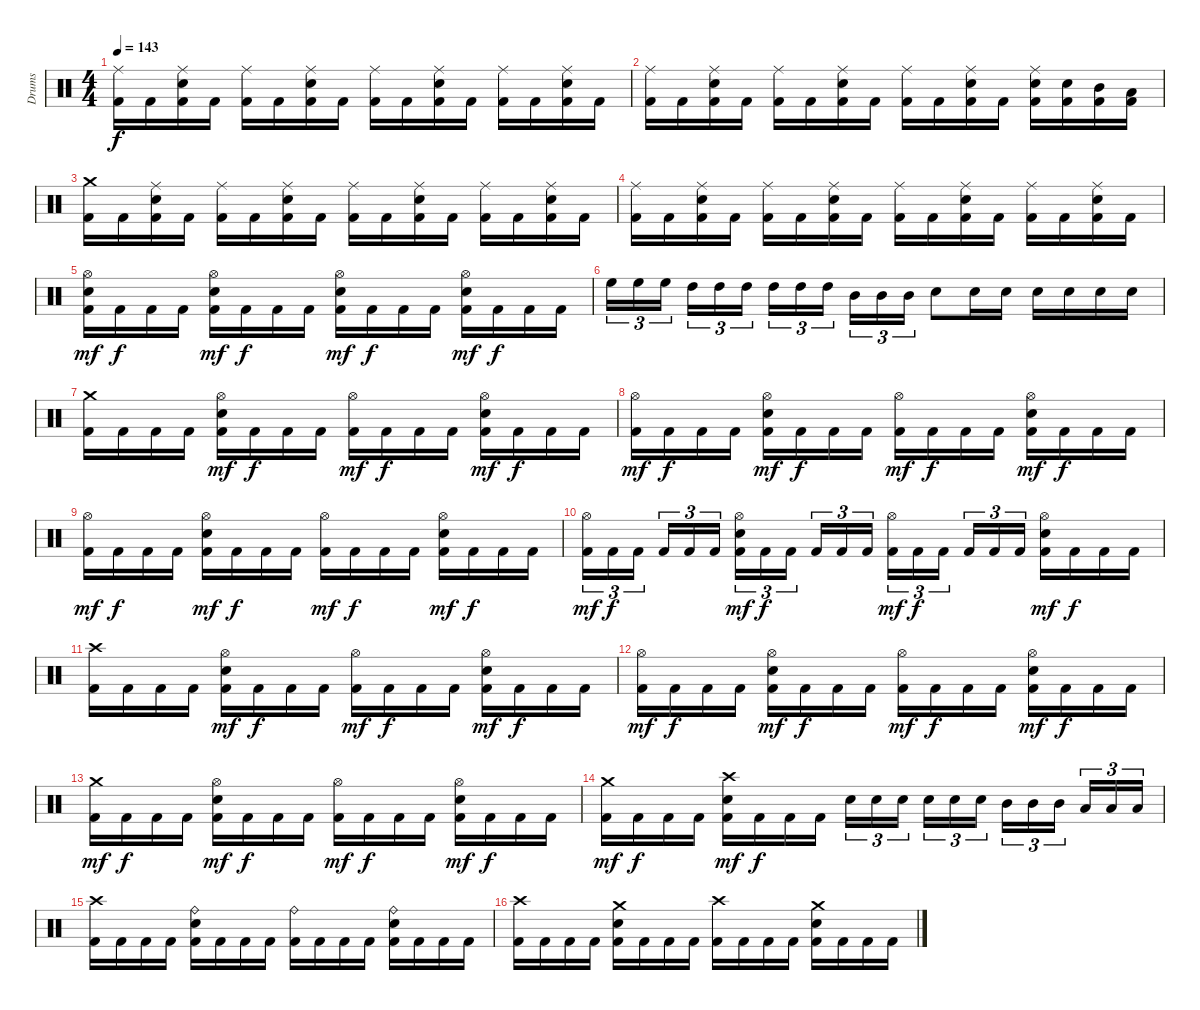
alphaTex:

\track ("Drums" "Drums") {instrument percussion}
\staff {score}
\articulation defaults
\ts (4 4)
\tempo 143
\clef neutral
\ks c
("Ride (middle)" "Kick (hit) 2").16{dy f} "Kick (hit) 2".16 ("Ride (middle)" "Electric Snare (hit)" "Kick (hit) 2").16 "Kick (hit) 2".16 ("Ride (middle)" "Kick (hit) 2").16 "Kick (hit) 2".16 ("Ride (middle)" "Electric Snare (hit)" "Kick (hit) 2").16 "Kick (hit) 2".16 ("Ride (middle)" "Kick (hit) 2").16 "Kick (hit) 2".16 ("Ride (middle)" "Electric Snare (hit)" "Kick (hit) 2").16 "Kick (hit) 2".16 ("Ride (middle)" "Kick (hit) 2").16 "Kick (hit) 2".16 ("Ride (middle)" "Electric Snare (hit)" "Kick (hit) 2").16 "Kick (hit) 2".16 |
("Ride (middle)" "Kick (hit) 2").16 "Kick (hit) 2".16 ("Ride (middle)" "Electric Snare (hit)" "Kick (hit) 2").16 "Kick (hit) 2".16 ("Ride (middle)" "Kick (hit) 2").16 "Kick (hit) 2".16 ("Ride (middle)" "Electric Snare (hit)" "Kick (hit) 2").16 "Kick (hit) 2".16 ("Ride (middle)" "Kick (hit) 2").16 "Kick (hit) 2".16 ("Ride (middle)" "Electric Snare (hit)" "Kick (hit) 2").16 "Kick (hit) 2".16 ("Ride (middle)" "Electric Snare (hit)" "Kick (hit) 2").16 ("Electric Snare (hit)" "Kick (hit) 2").16 ("Mid Tom (hit)" "Kick (hit) 2").16 ("Low Tom (hit)" "Kick (hit) 2").16 |
("Crash medium (hit)" "Kick (hit) 2").16 "Kick (hit) 2".16 ("Ride (middle)" "Electric Snare (hit)" "Kick (hit) 2").16 "Kick (hit) 2".16 ("Ride (middle)" "Kick (hit) 2").16 "Kick (hit) 2".16 ("Ride (middle)" "Electric Snare (hit)" "Kick (hit) 2").16 "Kick (hit) 2".16 ("Ride (middle)" "Kick (hit) 2").16 "Kick (hit) 2".16 ("Ride (middle)" "Electric Snare (hit)" "Kick (hit) 2").16 "Kick (hit) 2".16 ("Ride (middle)" "Kick (hit) 2").16 "Kick (hit) 2".16 ("Ride (middle)" "Electric Snare (hit)" "Kick (hit) 2").16 "Kick (hit) 2".16 |
("Ride (middle)" "Kick (hit) 2").16 "Kick (hit) 2".16 ("Ride (middle)" "Electric Snare (hit)" "Kick (hit) 2").16 "Kick (hit) 2".16 ("Ride (middle)" "Kick (hit) 2").16 "Kick (hit) 2".16 ("Ride (middle)" "Electric Snare (hit)" "Kick (hit) 2").16 "Kick (hit) 2".16 ("Ride (middle)" "Kick (hit) 2").16 "Kick (hit) 2".16 ("Ride (middle)" "Electric Snare (hit)" "Kick (hit) 2").16 "Kick (hit) 2".16 ("Ride (middle)" "Kick (hit) 2").16 "Kick (hit) 2".16 ("Ride (middle)" "Electric Snare (hit)" "Kick (hit) 2").16 "Kick (hit) 2".16 |
("Hi-Hat (open)" "Electric Snare (hit)" "Kick (hit) 2").16{dy mf} "Kick (hit) 2".16{dy f} "Kick (hit) 2".16 "Kick (hit) 2".16 ("Hi-Hat (open)" "Electric Snare (hit)" "Kick (hit) 2").16{dy mf} "Kick (hit) 2".16{dy f} "Kick (hit) 2".16 "Kick (hit) 2".16 ("Hi-Hat (open)" "Electric Snare (hit)" "Kick (hit) 2").16{dy mf} "Kick (hit) 2".16{dy f} "Kick (hit) 2".16 "Kick (hit) 2".16 ("Hi-Hat (open)" "Electric Snare (hit)" "Kick (hit) 2").16{dy mf} "Kick (hit) 2".16{dy f} "Kick (hit) 2".16 "Kick (hit) 2".16 |
"High Floor Tom (hit)".16{tu (3 2)} "High Floor Tom (hit)".16{tu (3 2)} "High Floor Tom (hit)".16{tu (3 2)} "High Tom (hit)".16{tu (3 2)} "High Tom (hit)".16{tu (3 2)} "High Tom (hit)".16{tu (3 2)} "High Tom (hit)".16{tu (3 2)} "High Tom (hit)".16{tu (3 2)} "High Tom (hit)".16{tu (3 2)} "Mid Tom (hit)".16{tu (3 2)} "Mid Tom (hit)".16{tu (3 2)} "Mid Tom (hit)".16{tu (3 2)} "Electric Snare (hit)".8 "Electric Snare (hit)".16 "Electric Snare (hit)".16 "Electric Snare (hit)".16 "Electric Snare (hit)".16 "Electric Snare (hit)".16 "Electric Snare (hit)".16 |
("Crash medium (hit)" "Kick (hit) 2").16 "Kick (hit) 2".16 "Kick (hit) 2".16 "Kick (hit) 2".16 ("Hi-Hat (open)" "Electric Snare (hit)" "Kick (hit) 2").16{dy mf} "Kick (hit) 2".16{dy f} "Kick (hit) 2".16 "Kick (hit) 2".16 ("Hi-Hat (open)" "Kick (hit) 2").16{dy mf} "Kick (hit) 2".16{dy f} "Kick (hit) 2".16 "Kick (hit) 2".16 ("Hi-Hat (open)" "Electric Snare (hit)" "Kick (hit) 2").16{dy mf} "Kick (hit) 2".16{dy f} "Kick (hit) 2".16 "Kick (hit) 2".16 |
("Hi-Hat (open)" "Kick (hit) 2").16{dy mf} "Kick (hit) 2".16{dy f} "Kick (hit) 2".16 "Kick (hit) 2".16 ("Hi-Hat (open)" "Electric Snare (hit)" "Kick (hit) 2").16{dy mf} "Kick (hit) 2".16{dy f} "Kick (hit) 2".16 "Kick (hit) 2".16 ("Hi-Hat (open)" "Kick (hit) 2").16{dy mf} "Kick (hit) 2".16{dy f} "Kick (hit) 2".16 "Kick (hit) 2".16 ("Hi-Hat (open)" "Electric Snare (hit)" "Kick (hit) 2").16{dy mf} "Kick (hit) 2".16{dy f} "Kick (hit) 2".16 "Kick (hit) 2".16 |
("Hi-Hat (open)" "Kick (hit) 2").16{dy mf} "Kick (hit) 2".16{dy f} "Kick (hit) 2".16 "Kick (hit) 2".16 ("Hi-Hat (open)" "Electric Snare (hit)" "Kick (hit) 2").16{dy mf} "Kick (hit) 2".16{dy f} "Kick (hit) 2".16 "Kick (hit) 2".16 ("Hi-Hat (open)" "Kick (hit) 2").16{dy mf} "Kick (hit) 2".16{dy f} "Kick (hit) 2".16 "Kick (hit) 2".16 ("Hi-Hat (open)" "Electric Snare (hit)" "Kick (hit) 2").16{dy mf} "Kick (hit) 2".16{dy f} "Kick (hit) 2".16 "Kick (hit) 2".16 |
("Hi-Hat (open)" "Kick (hit) 2").16{tu (3 2) dy mf} "Kick (hit) 2".16{tu (3 2) dy f} "Kick (hit) 2".16{tu (3 2)} "Kick (hit) 2".16{tu (3 2)} "Kick (hit) 2".16{tu (3 2)} "Kick (hit) 2".16{tu (3 2)} ("Hi-Hat (open)" "Electric Snare (hit)" "Kick (hit) 2").16{tu (3 2) dy mf} "Kick (hit) 2".16{tu (3 2) dy f} "Kick (hit) 2".16{tu (3 2)} "Kick (hit) 2".16{tu (3 2)} "Kick (hit) 2".16{tu (3 2)} "Kick (hit) 2".16{tu (3 2)} ("Hi-Hat (open)" "Kick (hit) 2").16{tu (3 2) dy mf} "Kick (hit) 2".16{tu (3 2) dy f} "Kick (hit) 2".16{tu (3 2)} "Kick (hit) 2".16{tu (3 2)} "Kick (hit) 2".16{tu (3 2)} "Kick (hit) 2".16{tu (3 2)} ("Hi-Hat (open)" "Electric Snare (hit)" "Kick (hit) 2").16{dy mf} "Kick (hit) 2".16{dy f} "Kick (hit) 2".16 "Kick (hit) 2".16 |
("Crash high (hit)" "Kick (hit) 2").16 "Kick (hit) 2".16 "Kick (hit) 2".16 "Kick (hit) 2".16 ("Hi-Hat (open)" "Electric Snare (hit)" "Kick (hit) 2").16{dy mf} "Kick (hit) 2".16{dy f} "Kick (hit) 2".16 "Kick (hit) 2".16 ("Hi-Hat (open)" "Kick (hit) 2").16{dy mf} "Kick (hit) 2".16{dy f} "Kick (hit) 2".16 "Kick (hit) 2".16 ("Hi-Hat (open)" "Electric Snare (hit)" "Kick (hit) 2").16{dy mf} "Kick (hit) 2".16{dy f} "Kick (hit) 2".16 "Kick (hit) 2".16 |
("Hi-Hat (open)" "Kick (hit) 2").16{dy mf} "Kick (hit) 2".16{dy f} "Kick (hit) 2".16 "Kick (hit) 2".16 ("Hi-Hat (open)" "Electric Snare (hit)" "Kick (hit) 2").16{dy mf} "Kick (hit) 2".16{dy f} "Kick (hit) 2".16 "Kick (hit) 2".16 ("Hi-Hat (open)" "Kick (hit) 2").16{dy mf} "Kick (hit) 2".16{dy f} "Kick (hit) 2".16 "Kick (hit) 2".16 ("Hi-Hat (open)" "Electric Snare (hit)" "Kick (hit) 2").16{dy mf} "Kick (hit) 2".16{dy f} "Kick (hit) 2".16 "Kick (hit) 2".16 |
("Crash medium (hit)" "Kick (hit) 2").16{dy mf} "Kick (hit) 2".16{dy f} "Kick (hit) 2".16 "Kick (hit) 2".16 ("Hi-Hat (open)" "Electric Snare (hit)" "Kick (hit) 2").16{dy mf} "Kick (hit) 2".16{dy f} "Kick (hit) 2".16 "Kick (hit) 2".16 ("Hi-Hat (open)" "Kick (hit) 2").16{dy mf} "Kick (hit) 2".16{dy f} "Kick (hit) 2".16 "Kick (hit) 2".16 ("Hi-Hat (open)" "Electric Snare (hit)" "Kick (hit) 2").16{dy mf} "Kick (hit) 2".16{dy f} "Kick (hit) 2".16 "Kick (hit) 2".16 |
("Crash medium (hit)" "Kick (hit) 2").16{dy mf} "Kick (hit) 2".16{dy f} "Kick (hit) 2".16 "Kick (hit) 2".16 ("Crash high (hit)" "Electric Snare (hit)" "Kick (hit) 2").16{dy mf} "Kick (hit) 2".16{dy f} "Kick (hit) 2".16 "Kick (hit) 2".16 "Electric Snare (hit)".16{tu (3 2)} "Electric Snare (hit)".16{tu (3 2)} "Electric Snare (hit)".16{tu (3 2)} "Electric Snare (hit)".16{tu (3 2)} "Electric Snare (hit)".16{tu (3 2)} "Electric Snare (hit)".16{tu (3 2)} "Mid Tom (hit)".16{tu (3 2)} "Mid Tom (hit)".16{tu (3 2)} "Mid Tom (hit)".16{tu (3 2)} "Low Tom (hit)".16{tu (3 2)} "Low Tom (hit)".16{tu (3 2)} "Low Tom (hit)".16{tu (3 2)} |
("Crash high (hit)" "Kick (hit) 2").16 "Kick (hit) 2".16 "Kick (hit) 2".16 "Kick (hit) 2".16 ("Ride (bell)" "Electric Snare (hit)" "Kick (hit) 2").16 "Kick (hit) 2".16 "Kick (hit) 2".16 "Kick (hit) 2".16 ("Ride (bell)" "Kick (hit) 2").16 "Kick (hit) 2".16 "Kick (hit) 2".16 "Kick (hit) 2".16 ("Ride (bell)" "Electric Snare (hit)" "Kick (hit) 2").16 "Kick (hit) 2".16 "Kick (hit) 2".16 "Kick (hit) 2".16 |
("Crash high (hit)" "Kick (hit) 2").16 "Kick (hit) 2".16 "Kick (hit) 2".16 "Kick (hit) 2".16 ("Crash medium (hit)" "Electric Snare (hit)" "Kick (hit) 2").16 "Kick (hit) 2".16 "Kick (hit) 2".16 "Kick (hit) 2".16 ("Crash high (hit)" "Kick (hit) 2").16 "Kick (hit) 2".16 "Kick (hit) 2".16 "Kick (hit) 2".16 ("Crash medium (hit)" "Electric Snare (hit)" "Kick (hit) 2").16 "Kick (hit) 2".16 "Kick (hit) 2".16 "Kick (hit) 2".16
